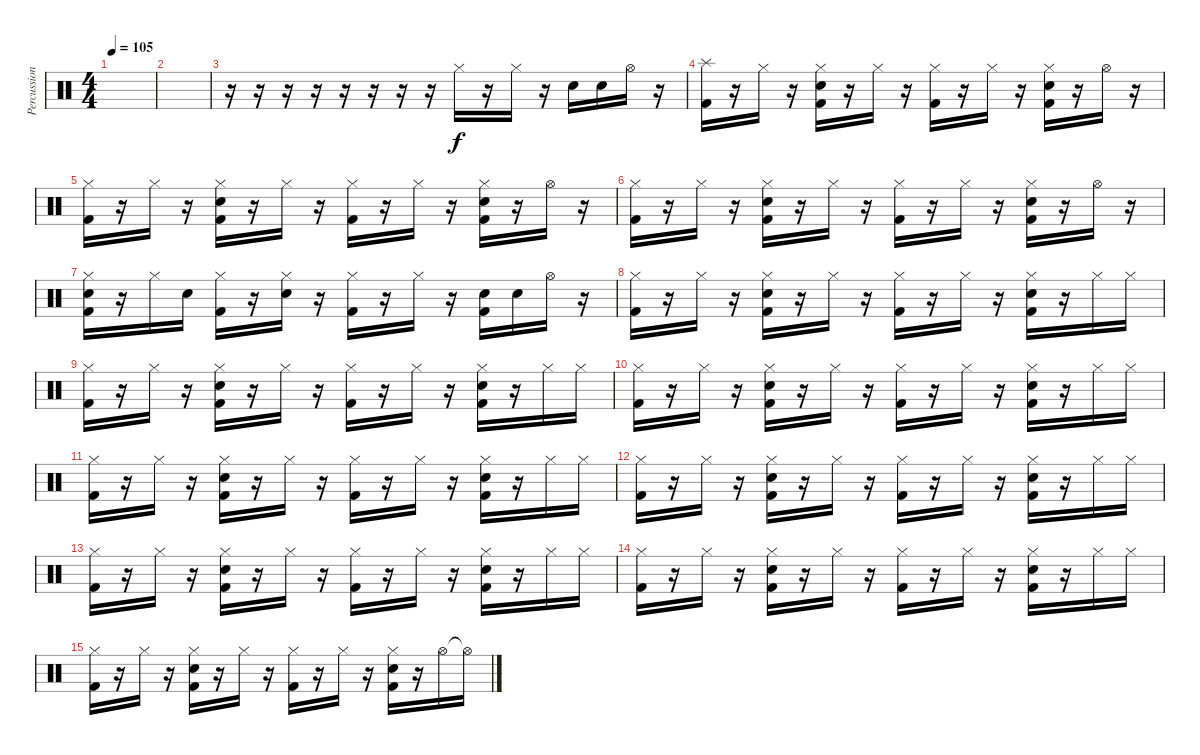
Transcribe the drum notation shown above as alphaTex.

\track ("Percussion" "Percussion") {instrument percussion}
\staff {score}
\articulation defaults
\ts (4 4)
\tempo 105
\clef neutral
\ks c
|
|
r.16 r.16 r.16 r.16 r.16 r.16 r.16 r.16 "Hi-Hat (closed)".16 r.16 "Hi-Hat (closed)".16 r.16 "Snare (hit) 2".16 "Snare (hit) 2".16 "Hi-Hat (open)".16 r.16 |
("Splash (hit)" "Kick (hit) 2").16 r.16 "Hi-Hat (closed)".16 r.16 ("Hi-Hat (closed)" "Snare (hit) 2" "Kick (hit) 2").16 r.16 "Hi-Hat (closed)".16 r.16 ("Hi-Hat (closed)" "Kick (hit) 2").16 r.16 "Hi-Hat (closed)".16 r.16 ("Hi-Hat (closed)" "Snare (hit) 2" "Kick (hit) 2").16 r.16 "Hi-Hat (open)".16 r.16 |
("Hi-Hat (closed)" "Kick (hit) 2").16 r.16 "Hi-Hat (closed)".16 r.16 ("Hi-Hat (closed)" "Snare (hit) 2" "Kick (hit) 2").16 r.16 "Hi-Hat (closed)".16 r.16 ("Hi-Hat (closed)" "Kick (hit) 2").16 r.16 "Hi-Hat (closed)".16 r.16 ("Hi-Hat (closed)" "Snare (hit) 2" "Kick (hit) 2").16 r.16 "Hi-Hat (open)".16 r.16 |
("Hi-Hat (closed)" "Kick (hit) 2").16 r.16 "Hi-Hat (closed)".16 r.16 ("Hi-Hat (closed)" "Snare (hit) 2" "Kick (hit) 2").16 r.16 "Hi-Hat (closed)".16 r.16 ("Hi-Hat (closed)" "Kick (hit) 2").16 r.16 "Hi-Hat (closed)".16 r.16 ("Hi-Hat (closed)" "Snare (hit) 2" "Kick (hit) 2").16 r.16 "Hi-Hat (open)".16 r.16 |
("Hi-Hat (closed)" "Snare (hit) 2" "Kick (hit) 2").16 r.16 "Hi-Hat (closed)".16 "Snare (hit) 2".16 ("Hi-Hat (closed)" "Kick (hit) 2").16 r.16 ("Hi-Hat (closed)" "Snare (hit) 2").16 r.16 ("Hi-Hat (closed)" "Kick (hit) 2").16 r.16 "Hi-Hat (closed)".16 r.16 ("Snare (hit) 2" "Kick (hit) 2").16 "Snare (hit) 2".16 "Hi-Hat (open)".16 r.16 |
("Hi-Hat (closed)" "Kick (hit) 2").16 r.16 "Hi-Hat (closed)".16 r.16 ("Hi-Hat (closed)" "Snare (hit) 2" "Kick (hit) 2").16 r.16 "Hi-Hat (closed)".16 r.16 ("Hi-Hat (closed)" "Kick (hit) 2").16 r.16 "Hi-Hat (closed)".16 r.16 ("Hi-Hat (closed)" "Snare (hit) 2" "Kick (hit) 2").16 r.16 "Hi-Hat (closed)".16 "Hi-Hat (closed)".16 |
("Hi-Hat (closed)" "Kick (hit) 2").16 r.16 "Hi-Hat (closed)".16 r.16 ("Hi-Hat (closed)" "Snare (hit) 2" "Kick (hit) 2").16 r.16 "Hi-Hat (closed)".16 r.16 ("Hi-Hat (closed)" "Kick (hit) 2").16 r.16 "Hi-Hat (closed)".16 r.16 ("Hi-Hat (closed)" "Snare (hit) 2" "Kick (hit) 2").16 r.16 "Hi-Hat (closed)".16 "Hi-Hat (closed)".16 |
("Hi-Hat (closed)" "Kick (hit) 2").16 r.16 "Hi-Hat (closed)".16 r.16 ("Hi-Hat (closed)" "Snare (hit) 2" "Kick (hit) 2").16 r.16 "Hi-Hat (closed)".16 r.16 ("Hi-Hat (closed)" "Kick (hit) 2").16 r.16 "Hi-Hat (closed)".16 r.16 ("Hi-Hat (closed)" "Snare (hit) 2" "Kick (hit) 2").16 r.16 "Hi-Hat (closed)".16 "Hi-Hat (closed)".16 |
("Hi-Hat (closed)" "Kick (hit) 2").16 r.16 "Hi-Hat (closed)".16 r.16 ("Hi-Hat (closed)" "Snare (hit) 2" "Kick (hit) 2").16 r.16 "Hi-Hat (closed)".16 r.16 ("Hi-Hat (closed)" "Kick (hit) 2").16 r.16 "Hi-Hat (closed)".16 r.16 ("Hi-Hat (closed)" "Snare (hit) 2" "Kick (hit) 2").16 r.16 "Hi-Hat (closed)".16 "Hi-Hat (closed)".16 |
("Hi-Hat (closed)" "Kick (hit) 2").16 r.16 "Hi-Hat (closed)".16 r.16 ("Hi-Hat (closed)" "Snare (hit) 2" "Kick (hit) 2").16 r.16 "Hi-Hat (closed)".16 r.16 ("Hi-Hat (closed)" "Kick (hit) 2").16 r.16 "Hi-Hat (closed)".16 r.16 ("Hi-Hat (closed)" "Snare (hit) 2" "Kick (hit) 2").16 r.16 "Hi-Hat (closed)".16 "Hi-Hat (closed)".16 |
("Hi-Hat (closed)" "Kick (hit) 2").16 r.16 "Hi-Hat (closed)".16 r.16 ("Hi-Hat (closed)" "Snare (hit) 2" "Kick (hit) 2").16 r.16 "Hi-Hat (closed)".16 r.16 ("Hi-Hat (closed)" "Kick (hit) 2").16 r.16 "Hi-Hat (closed)".16 r.16 ("Hi-Hat (closed)" "Snare (hit) 2" "Kick (hit) 2").16 r.16 "Hi-Hat (closed)".16 "Hi-Hat (closed)".16 |
("Hi-Hat (closed)" "Kick (hit) 2").16 r.16 "Hi-Hat (closed)".16 r.16 ("Hi-Hat (closed)" "Snare (hit) 2" "Kick (hit) 2").16 r.16 "Hi-Hat (closed)".16 r.16 ("Hi-Hat (closed)" "Kick (hit) 2").16 r.16 "Hi-Hat (closed)".16 r.16 ("Hi-Hat (closed)" "Snare (hit) 2" "Kick (hit) 2").16 r.16 "Hi-Hat (closed)".16 "Hi-Hat (closed)".16 |
("Hi-Hat (closed)" "Kick (hit) 2").16 r.16 "Hi-Hat (closed)".16 r.16 ("Hi-Hat (closed)" "Snare (hit) 2" "Kick (hit) 2").16 r.16 "Hi-Hat (closed)".16 r.16 ("Hi-Hat (closed)" "Kick (hit) 2").16 r.16 "Hi-Hat (closed)".16 r.16 ("Hi-Hat (closed)" "Snare (hit) 2" "Kick (hit) 2").16 r.16 "Hi-Hat (open)".16 "Hi-Hat (open)"{t}.16
